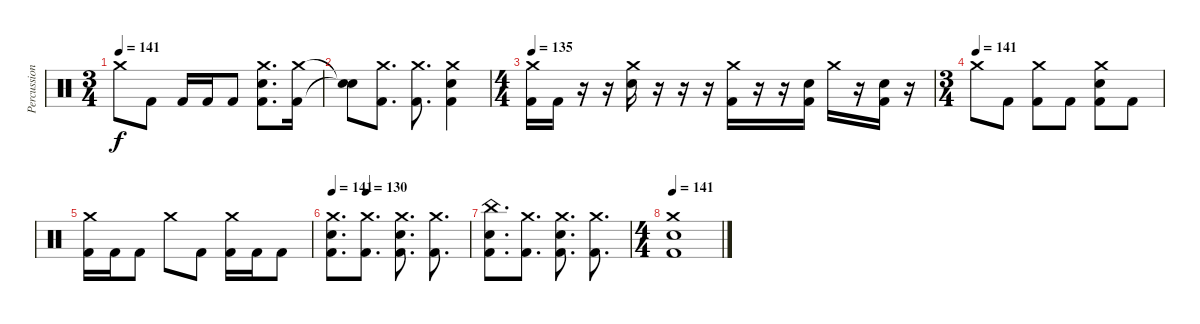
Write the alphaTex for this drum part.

\track ("Percussion" "Percussion") {instrument percussion}
\staff {score}
\articulation defaults
\ts (3 4)
\tempo 141
\clef neutral
\ks c "Crash medium (hit)".8{dy f} "Kick (hit) 2".8 "Kick (hit) 2".16 "Kick (hit) 2".16 "Kick (hit) 2".8
("Crash medium (hit)" "Electric Snare (hit)" "Kick (hit) 2").8{d} ("Crash medium (hit)" "Kick (hit) 2").16 |
("Snare (hit)"{t} "Snare (hit)"{t}).8 ("Crash medium (hit)" "Kick (hit) 2").8{d} ("Crash medium (hit)" "Kick (hit) 2").8{d} ("Crash medium (hit)" "Electric Snare (hit)" "Kick (hit) 2").4 |
\ts (4 4)
\tempo 135
("Crash medium (hit)" "Kick (hit) 2").16 "Kick (hit) 2".16 r.16 r.16 ("Crash medium (hit)" "Electric Snare (hit)").16 r.16 r.16 r.16 ("Crash medium (hit)" "Kick (hit) 2").16 r.16 r.16 ("Electric Snare (hit)" "Kick (hit) 2").16 "Crash medium (hit)".16 r.16 ("Electric Snare (hit)" "Kick (hit) 2").16 r.16 |
\ts (3 4)
\tempo (141)
"Crash medium (hit)".8 "Kick (hit) 2".8 ("Crash medium (hit)" "Kick (hit) 2").8 "Kick (hit) 2".8 ("Crash medium (hit)" "Electric Snare (hit)" "Kick (hit) 2").8 "Kick (hit) 2".8 |
("Crash medium (hit)" "Kick (hit) 2").16 "Kick (hit) 2".16 "Kick (hit) 2".8 "Crash medium (hit)".8 "Kick (hit) 2".8 ("Crash medium (hit)" "Kick (hit) 2").16 "Kick (hit) 2".16 "Kick (hit) 2".8 |
\tempo 141
\tempo (130 0.25)
("Crash medium (hit)" "Electric Snare (hit)" "Kick (hit) 2").8{d} ("Crash medium (hit)" "Kick (hit) 2").8{d} ("Crash medium (hit)" "Electric Snare (hit)" "Kick (hit) 2").8{d} ("Crash medium (hit)" "Kick (hit) 2").8{d} |
("China (hit)" "Electric Snare (hit)" "Kick (hit) 2").8{d} ("Crash medium (hit)" "Kick (hit) 2").8{d} ("Crash medium (hit)" "Electric Snare (hit)" "Kick (hit) 2").8{d} ("Crash medium (hit)" "Kick (hit) 2").8{d} |
\ts (4 4)
\tempo 141
("Crash medium (hit)" "Electric Snare (hit)" "Kick (hit) 2").1
